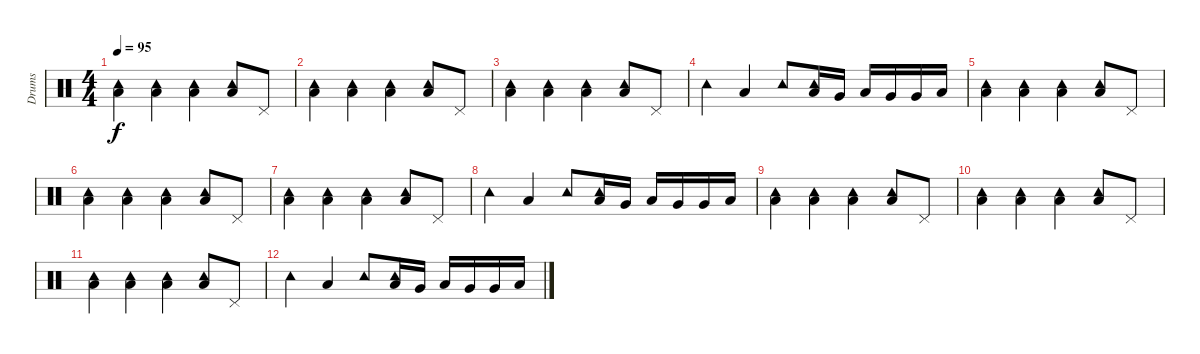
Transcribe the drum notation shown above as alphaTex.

\track ("Drums" "Drums") {instrument percussion}
\staff {score}
\articulation defaults
\ts (4 4)
\tempo 95
\clef neutral
\ks c
("Low Tom (hit)" "Tambourine (hit)").4{dy f} ("Low Tom (hit)" "Tambourine (hit)").4 ("Low Tom (hit)" "Tambourine (hit)").4 ("Low Tom (hit)" "Tambourine (hit)").8 "Pedal Hi-Hat (hit)".8 |
("Low Tom (hit)" "Tambourine (hit)").4 ("Low Tom (hit)" "Tambourine (hit)").4 ("Low Tom (hit)" "Tambourine (hit)").4 ("Low Tom (hit)" "Tambourine (hit)").8 "Pedal Hi-Hat (hit)".8 |
("Low Tom (hit)" "Tambourine (hit)").4 ("Low Tom (hit)" "Tambourine (hit)").4 ("Low Tom (hit)" "Tambourine (hit)").4 ("Low Tom (hit)" "Tambourine (hit)").8 "Pedal Hi-Hat (hit)".8 |
"Tambourine (hit)".4 "Low Tom (hit)".4 "Tambourine (hit)".8 ("Low Tom (hit)" "Tambourine (hit)").16 "Very Low Tom (hit)".16 "Low Tom (hit)".16 "Very Low Tom (hit)".16 "Very Low Tom (hit)".16 "Low Floor Tom (hit)".16 |
("Low Tom (hit)" "Tambourine (hit)").4{volume 13} ("Low Tom (hit)" "Tambourine (hit)").4 ("Low Tom (hit)" "Tambourine (hit)").4 ("Low Tom (hit)" "Tambourine (hit)").8 "Pedal Hi-Hat (hit)".8 |
("Low Tom (hit)" "Tambourine (hit)").4 ("Low Tom (hit)" "Tambourine (hit)").4 ("Low Tom (hit)" "Tambourine (hit)").4 ("Low Tom (hit)" "Tambourine (hit)").8 "Pedal Hi-Hat (hit)".8 |
("Low Tom (hit)" "Tambourine (hit)").4 ("Low Tom (hit)" "Tambourine (hit)").4 ("Low Tom (hit)" "Tambourine (hit)").4 ("Low Tom (hit)" "Tambourine (hit)").8 "Pedal Hi-Hat (hit)".8 |
"Tambourine (hit)".4{volume 10} "Low Tom (hit)".4 "Tambourine (hit)".8 ("Low Tom (hit)" "Tambourine (hit)").16 "Very Low Tom (hit)".16 "Low Tom (hit)".16 "Very Low Tom (hit)".16 "Very Low Tom (hit)".16 "Low Floor Tom (hit)".16 |
("Low Tom (hit)" "Tambourine (hit)").4{volume 7} ("Low Tom (hit)" "Tambourine (hit)").4 ("Low Tom (hit)" "Tambourine (hit)").4 ("Low Tom (hit)" "Tambourine (hit)").8 "Pedal Hi-Hat (hit)".8 |
("Low Tom (hit)" "Tambourine (hit)").4 ("Low Tom (hit)" "Tambourine (hit)").4 ("Low Tom (hit)" "Tambourine (hit)").4 ("Low Tom (hit)" "Tambourine (hit)").8 "Pedal Hi-Hat (hit)".8 |
("Low Tom (hit)" "Tambourine (hit)").4 ("Low Tom (hit)" "Tambourine (hit)").4 ("Low Tom (hit)" "Tambourine (hit)").4 ("Low Tom (hit)" "Tambourine (hit)").8 "Pedal Hi-Hat (hit)".8 |
"Tambourine (hit)".4{volume 4} "Low Tom (hit)".4 "Tambourine (hit)".8 ("Low Tom (hit)" "Tambourine (hit)").16 "Very Low Tom (hit)".16 "Low Tom (hit)".16 "Very Low Tom (hit)".16 "Very Low Tom (hit)".16 "Low Floor Tom (hit)".16
